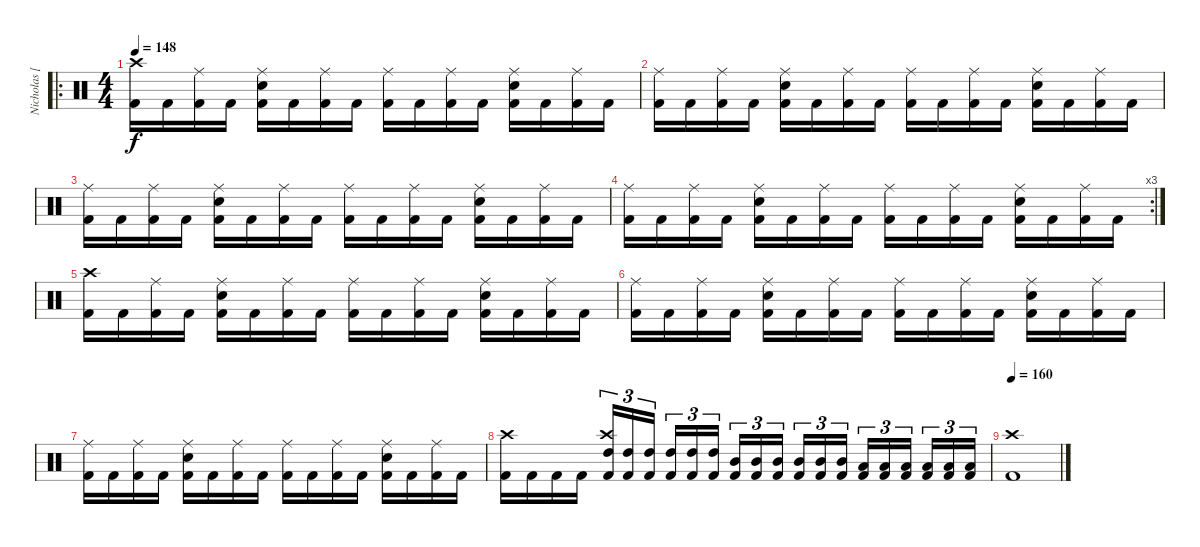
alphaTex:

\track ("Nicholas [Percussion]" "Nicholas [") {instrument percussion}
\staff {score}
\articulation defaults
\ro
\ts (4 4)
\tempo 148
\clef neutral
\ks c
("Kick (hit) 2" "Crash high (hit)").16{dy f} "Kick (hit) 2".16 ("Kick (hit) 2" "Ride (middle)").16 "Kick (hit) 2".16 ("Kick (hit) 2" "Snare (hit) 2" "Ride (middle)").16 "Kick (hit) 2".16 ("Kick (hit) 2" "Ride (middle)").16 "Kick (hit) 2".16 ("Kick (hit) 2" "Ride (middle)").16 "Kick (hit) 2".16 ("Kick (hit) 2" "Ride (middle)").16 "Kick (hit) 2".16 ("Kick (hit) 2" "Snare (hit) 2" "Ride (middle)").16 "Kick (hit) 2".16 ("Kick (hit) 2" "Ride (middle)").16 "Kick (hit) 2".16 |
("Kick (hit) 2" "Ride (middle)").16 "Kick (hit) 2".16 ("Kick (hit) 2" "Ride (middle)").16 "Kick (hit) 2".16 ("Kick (hit) 2" "Snare (hit) 2" "Ride (middle)").16 "Kick (hit) 2".16 ("Kick (hit) 2" "Ride (middle)").16 "Kick (hit) 2".16 ("Kick (hit) 2" "Ride (middle)").16 "Kick (hit) 2".16 ("Kick (hit) 2" "Ride (middle)").16 "Kick (hit) 2".16 ("Kick (hit) 2" "Snare (hit) 2" "Ride (middle)").16 "Kick (hit) 2".16 ("Kick (hit) 2" "Ride (middle)").16 "Kick (hit) 2".16 |
("Kick (hit) 2" "Ride (middle)").16 "Kick (hit) 2".16 ("Kick (hit) 2" "Ride (middle)").16 "Kick (hit) 2".16 ("Kick (hit) 2" "Snare (hit) 2" "Ride (middle)").16 "Kick (hit) 2".16 ("Kick (hit) 2" "Ride (middle)").16 "Kick (hit) 2".16 ("Kick (hit) 2" "Ride (middle)").16 "Kick (hit) 2".16 ("Kick (hit) 2" "Ride (middle)").16 "Kick (hit) 2".16 ("Kick (hit) 2" "Snare (hit) 2" "Ride (middle)").16 "Kick (hit) 2".16 ("Kick (hit) 2" "Ride (middle)").16 "Kick (hit) 2".16 |
\rc 3
("Kick (hit) 2" "Ride (middle)").16 "Kick (hit) 2".16 ("Kick (hit) 2" "Ride (middle)").16 "Kick (hit) 2".16 ("Kick (hit) 2" "Snare (hit) 2" "Ride (middle)").16 "Kick (hit) 2".16 ("Kick (hit) 2" "Ride (middle)").16 "Kick (hit) 2".16 ("Kick (hit) 2" "Ride (middle)").16 "Kick (hit) 2".16 ("Kick (hit) 2" "Ride (middle)").16 "Kick (hit) 2".16 ("Kick (hit) 2" "Snare (hit) 2" "Ride (middle)").16 "Kick (hit) 2".16 ("Kick (hit) 2" "Ride (middle)").16 "Kick (hit) 2".16 |
("Kick (hit) 2" "Crash high (hit)").16 "Kick (hit) 2".16 ("Kick (hit) 2" "Ride (middle)").16 "Kick (hit) 2".16 ("Kick (hit) 2" "Snare (hit) 2" "Ride (middle)").16 "Kick (hit) 2".16 ("Kick (hit) 2" "Ride (middle)").16 "Kick (hit) 2".16 ("Kick (hit) 2" "Ride (middle)").16 "Kick (hit) 2".16 ("Kick (hit) 2" "Ride (middle)").16 "Kick (hit) 2".16 ("Kick (hit) 2" "Snare (hit) 2" "Ride (middle)").16 "Kick (hit) 2".16 ("Kick (hit) 2" "Ride (middle)").16 "Kick (hit) 2".16 |
("Kick (hit) 2" "Ride (middle)").16 "Kick (hit) 2".16 ("Kick (hit) 2" "Ride (middle)").16 "Kick (hit) 2".16 ("Kick (hit) 2" "Snare (hit) 2" "Ride (middle)").16 "Kick (hit) 2".16 ("Kick (hit) 2" "Ride (middle)").16 "Kick (hit) 2".16 ("Kick (hit) 2" "Ride (middle)").16 "Kick (hit) 2".16 ("Kick (hit) 2" "Ride (middle)").16 "Kick (hit) 2".16 ("Kick (hit) 2" "Snare (hit) 2" "Ride (middle)").16 "Kick (hit) 2".16 ("Kick (hit) 2" "Ride (middle)").16 "Kick (hit) 2".16 |
("Kick (hit) 2" "Ride (middle)").16 "Kick (hit) 2".16 ("Kick (hit) 2" "Ride (middle)").16 "Kick (hit) 2".16 ("Kick (hit) 2" "Snare (hit) 2" "Ride (middle)").16 "Kick (hit) 2".16 ("Kick (hit) 2" "Ride (middle)").16 "Kick (hit) 2".16 ("Kick (hit) 2" "Ride (middle)").16 "Kick (hit) 2".16 ("Kick (hit) 2" "Ride (middle)").16 "Kick (hit) 2".16 ("Kick (hit) 2" "Snare (hit) 2" "Ride (middle)").16 "Kick (hit) 2".16 ("Kick (hit) 2" "Ride (middle)").16 "Kick (hit) 2".16 |
("Kick (hit) 2" "Crash high (hit)").16 "Kick (hit) 2".16 "Kick (hit) 2".16 "Kick (hit) 2".16 ("Kick (hit) 2" "High Tom (hit)" "Crash high (hit)").16{tu (3 2)} ("Kick (hit) 2" "High Tom (hit)").16{tu (3 2)} ("Kick (hit) 2" "High Tom (hit)").16{tu (3 2)} ("Kick (hit) 2" "High Tom (hit)").16{tu (3 2)} ("Kick (hit) 2" "High Tom (hit)").16{tu (3 2)} ("Kick (hit) 2" "High Tom (hit)").16{tu (3 2)} ("Kick (hit) 2" "Mid Tom (hit)").16{tu (3 2)} ("Kick (hit) 2" "Mid Tom (hit)").16{tu (3 2)} ("Kick (hit) 2" "Mid Tom (hit)").16{tu (3 2)} ("Kick (hit) 2" "Mid Tom (hit)").16{tu (3 2)} ("Kick (hit) 2" "Mid Tom (hit)").16{tu (3 2)} ("Kick (hit) 2" "Mid Tom (hit)").16{tu (3 2)} ("Kick (hit) 2" "Low Tom (hit)").16{tu (3 2)} ("Kick (hit) 2" "Low Tom (hit)").16{tu (3 2)} ("Kick (hit) 2" "Low Tom (hit)").16{tu (3 2)} ("Kick (hit) 2" "Low Tom (hit)").16{tu (3 2)} ("Kick (hit) 2" "Low Tom (hit)").16{tu (3 2)} ("Kick (hit) 2" "Low Tom (hit)").16{tu (3 2)} |
\tempo 160
("Kick (hit) 2" "Crash high (hit)").1
